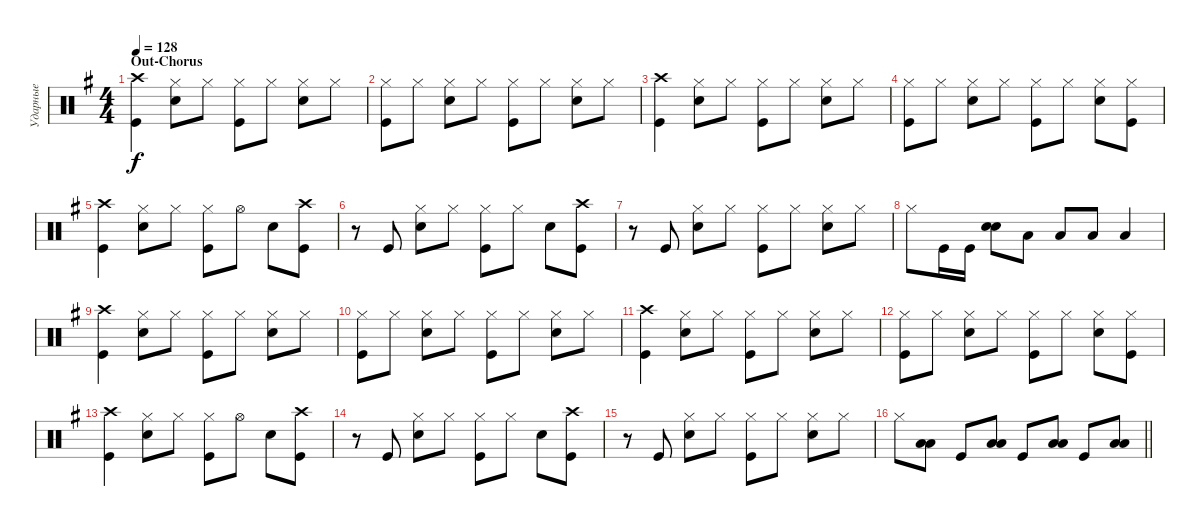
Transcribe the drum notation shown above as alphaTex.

\track ("Ударные" "Ударные") {instrument percussion}
\staff {score}
\articulation defaults
\ts (4 4)
\section ("" "Out-Chorus")
\tempo 128
\clef neutral
\ks eminor
("Crash high (hit)" "Kick (hit)").4{dy f} ("Hi-Hat (closed)" "Snare (hit) 2").8 "Hi-Hat (closed)".8 ("Hi-Hat (closed)" "Kick (hit)").8 "Hi-Hat (closed)".8 ("Hi-Hat (closed)" "Snare (hit) 2").8 "Hi-Hat (closed)".8 |
("Hi-Hat (closed)" "Kick (hit)").8 "Hi-Hat (closed)".8 ("Hi-Hat (closed)" "Snare (hit) 2").8 "Hi-Hat (closed)".8 ("Hi-Hat (closed)" "Kick (hit)").8 "Hi-Hat (closed)".8 ("Hi-Hat (closed)" "Snare (hit) 2").8 "Hi-Hat (closed)".8 |
("Crash high (hit)" "Kick (hit)").4 ("Hi-Hat (closed)" "Snare (hit) 2").8 "Hi-Hat (closed)".8 ("Hi-Hat (closed)" "Kick (hit)").8 "Hi-Hat (closed)".8 ("Hi-Hat (closed)" "Snare (hit) 2").8 "Hi-Hat (closed)".8 |
("Hi-Hat (closed)" "Kick (hit)").8 "Hi-Hat (closed)".8 ("Hi-Hat (closed)" "Snare (hit) 2").8 "Hi-Hat (closed)".8 ("Hi-Hat (closed)" "Kick (hit)").8 "Hi-Hat (closed)".8 ("Hi-Hat (closed)" "Snare (hit) 2").8 ("Hi-Hat (closed)" "Kick (hit)").8 |
("Crash high (hit)" "Kick (hit)").4 ("Hi-Hat (closed)" "Snare (hit) 2").8 "Hi-Hat (closed)".8 ("Hi-Hat (closed)" "Kick (hit)").8 "Hi-Hat (open)".8 "Snare (hit) 2".8 ("Kick (hit)" "Crash high (hit)").8 |
r.8 "Kick (hit)".8 ("Hi-Hat (closed)" "Snare (hit) 2").8 "Hi-Hat (closed)".8 ("Hi-Hat (closed)" "Kick (hit)").8 "Hi-Hat (closed)".8 "Snare (hit) 2".8 ("Kick (hit)" "Crash high (hit)").8 |
r.8 "Kick (hit)".8 ("Hi-Hat (closed)" "Snare (hit) 2").8 "Hi-Hat (closed)".8 ("Hi-Hat (closed)" "Kick (hit)").8 "Hi-Hat (closed)".8 ("Hi-Hat (closed)" "Snare (hit) 2").8 "Hi-Hat (closed)".8 |
"Hi-Hat (closed)".8 "Kick (hit)".16 "Kick (hit)".16 ("Snare (hit) 2" "Snare (hit) 2").8{bd 240} "Low Tom (hit)".8 "Low Tom (hit)".8 "Low Tom (hit)".8 "Low Tom (hit)".4 |
("Crash high (hit)" "Kick (hit)").4 ("Hi-Hat (closed)" "Snare (hit) 2").8 "Hi-Hat (closed)".8 ("Hi-Hat (closed)" "Kick (hit)").8 "Hi-Hat (closed)".8 ("Hi-Hat (closed)" "Snare (hit) 2").8 "Hi-Hat (closed)".8 |
("Hi-Hat (closed)" "Kick (hit)").8 "Hi-Hat (closed)".8 ("Hi-Hat (closed)" "Snare (hit) 2").8 "Hi-Hat (closed)".8 ("Hi-Hat (closed)" "Kick (hit)").8 "Hi-Hat (closed)".8 ("Hi-Hat (closed)" "Snare (hit) 2").8 "Hi-Hat (closed)".8 |
("Crash high (hit)" "Kick (hit)").4 ("Hi-Hat (closed)" "Snare (hit) 2").8 "Hi-Hat (closed)".8 ("Hi-Hat (closed)" "Kick (hit)").8 "Hi-Hat (closed)".8 ("Hi-Hat (closed)" "Snare (hit) 2").8 "Hi-Hat (closed)".8 |
("Hi-Hat (closed)" "Kick (hit)").8 "Hi-Hat (closed)".8 ("Hi-Hat (closed)" "Snare (hit) 2").8 "Hi-Hat (closed)".8 ("Hi-Hat (closed)" "Kick (hit)").8 "Hi-Hat (closed)".8 ("Hi-Hat (closed)" "Snare (hit) 2").8 ("Hi-Hat (closed)" "Kick (hit)").8 |
("Crash high (hit)" "Kick (hit)").4 ("Hi-Hat (closed)" "Snare (hit) 2").8 "Hi-Hat (closed)".8 ("Hi-Hat (closed)" "Kick (hit)").8 "Hi-Hat (open)".8 "Snare (hit) 2".8 ("Kick (hit)" "Crash high (hit)").8 |
r.8 "Kick (hit)".8 ("Hi-Hat (closed)" "Snare (hit) 2").8 "Hi-Hat (closed)".8 ("Hi-Hat (closed)" "Kick (hit)").8 "Hi-Hat (closed)".8 "Snare (hit) 2".8 ("Kick (hit)" "Crash high (hit)").8 |
r.8 "Kick (hit)".8 ("Hi-Hat (closed)" "Snare (hit) 2").8 "Hi-Hat (closed)".8 ("Hi-Hat (closed)" "Kick (hit)").8 "Hi-Hat (closed)".8 ("Hi-Hat (closed)" "Snare (hit) 2").8 "Hi-Hat (closed)".8 |
\barLineRight lightlight "Hi-Hat (closed)".8
("Low Tom (hit)" "Low Tom (hit)").8{bd 240} "Kick (hit)".8 ("Low Tom (hit)" "Low Tom (hit)").8{bd 240} "Kick (hit)".8 ("Low Tom (hit)" "Low Tom (hit)").8{bd 240} "Kick (hit)".8 ("Low Tom (hit)" "Low Tom (hit)").8{bd 240}
